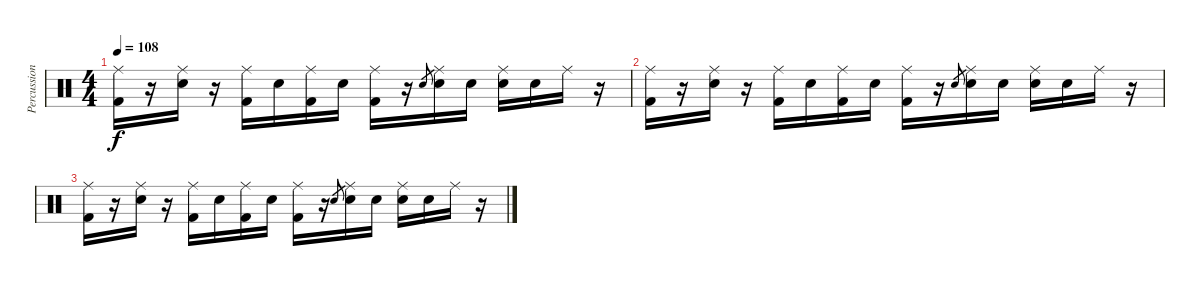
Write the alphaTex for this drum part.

\track ("Percussions" "Percussion") {instrument percussion}
\staff {score}
\articulation defaults
\ts (4 4)
\tempo 108
\clef neutral
\ks c
("Ride (middle)" "Kick (hit) 2").16{dy f} r.16 ("Ride (middle)" "Electric Snare (hit)").16 r.16 ("Ride (middle)" "Kick (hit) 2").16 "Electric Snare (hit)".16 ("Ride (middle)" "Kick (hit) 2").16 "Electric Snare (hit)".16 ("Ride (middle)" "Kick (hit) 2").16 r.16 "Electric Snare (hit)".8{gr} ("Ride (middle)" "Electric Snare (hit)").16 "Electric Snare (hit)".16 ("Ride (middle)" "Electric Snare (hit)").16 "Electric Snare (hit)".16 "Ride (middle)".16 r.16 |
("Ride (middle)" "Kick (hit) 2").16 r.16 ("Ride (middle)" "Electric Snare (hit)").16 r.16 ("Ride (middle)" "Kick (hit) 2").16 "Electric Snare (hit)".16 ("Ride (middle)" "Kick (hit) 2").16 "Electric Snare (hit)".16 ("Ride (middle)" "Kick (hit) 2").16 r.16 "Electric Snare (hit)".8{gr} ("Ride (middle)" "Electric Snare (hit)").16 "Electric Snare (hit)".16 ("Ride (middle)" "Electric Snare (hit)").16 "Electric Snare (hit)".16 "Ride (middle)".16 r.16 |
("Ride (middle)" "Kick (hit) 2").16 r.16 ("Ride (middle)" "Electric Snare (hit)").16 r.16 ("Ride (middle)" "Kick (hit) 2").16 "Electric Snare (hit)".16 ("Ride (middle)" "Kick (hit) 2").16 "Electric Snare (hit)".16 ("Ride (middle)" "Kick (hit) 2").16 r.16 "Electric Snare (hit)".8{gr} ("Ride (middle)" "Electric Snare (hit)").16 "Electric Snare (hit)".16 ("Ride (middle)" "Electric Snare (hit)").16 "Electric Snare (hit)".16 "Ride (middle)".16 r.16
